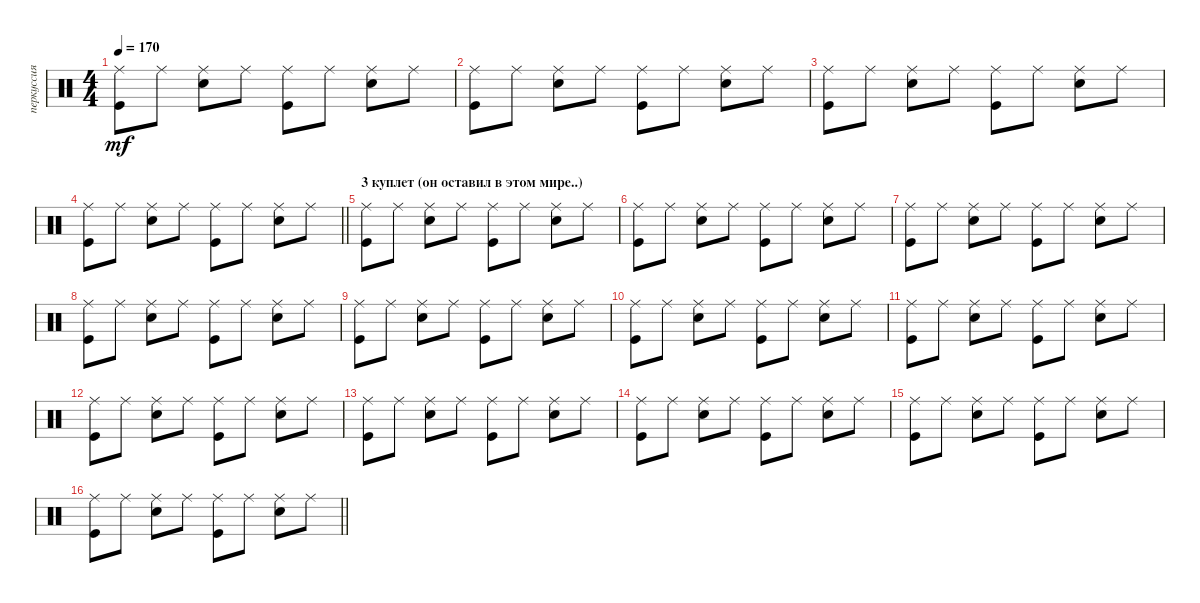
\track ("перкуссия" "перкуссия") {instrument percussion}
\staff {score}
\articulation defaults
\ts (4 4)
\tempo 170
\clef neutral
\ks c
("Ride (middle)" "Kick (hit)").8{dy mf} "Ride (middle)".8 ("Ride (middle)" "Snare (hit) 2").8 "Ride (middle)".8 ("Ride (middle)" "Kick (hit)").8 "Ride (middle)".8 ("Ride (middle)" "Snare (hit) 2").8 "Ride (middle)".8 |
("Ride (middle)" "Kick (hit)").8 "Ride (middle)".8 ("Ride (middle)" "Snare (hit) 2").8 "Ride (middle)".8 ("Ride (middle)" "Kick (hit)").8 "Ride (middle)".8 ("Ride (middle)" "Snare (hit) 2").8 "Ride (middle)".8 |
("Ride (middle)" "Kick (hit)").8 "Ride (middle)".8 ("Ride (middle)" "Snare (hit) 2").8 "Ride (middle)".8 ("Ride (middle)" "Kick (hit)").8 "Ride (middle)".8 ("Ride (middle)" "Snare (hit) 2").8 "Ride (middle)".8 |
\barLineRight lightlight
("Ride (middle)" "Kick (hit)").8 "Ride (middle)".8 ("Ride (middle)" "Snare (hit) 2").8 "Ride (middle)".8 ("Ride (middle)" "Kick (hit)").8 "Ride (middle)".8 ("Ride (middle)" "Snare (hit) 2").8 "Ride (middle)".8 |
\section ("" "3 куплет (он оставил в этом мире..)")
("Ride (middle)" "Kick (hit)").8 "Ride (middle)".8 ("Ride (middle)" "Snare (hit) 2").8 "Ride (middle)".8 ("Ride (middle)" "Kick (hit)").8 "Ride (middle)".8 ("Ride (middle)" "Snare (hit) 2").8 "Ride (middle)".8 |
("Ride (middle)" "Kick (hit)").8 "Ride (middle)".8 ("Ride (middle)" "Snare (hit) 2").8 "Ride (middle)".8 ("Ride (middle)" "Kick (hit)").8 "Ride (middle)".8 ("Ride (middle)" "Snare (hit) 2").8 "Ride (middle)".8 |
("Ride (middle)" "Kick (hit)").8 "Ride (middle)".8 ("Ride (middle)" "Snare (hit) 2").8 "Ride (middle)".8 ("Ride (middle)" "Kick (hit)").8 "Ride (middle)".8 ("Ride (middle)" "Snare (hit) 2").8 "Ride (middle)".8 |
("Ride (middle)" "Kick (hit)").8 "Ride (middle)".8 ("Ride (middle)" "Snare (hit) 2").8 "Ride (middle)".8 ("Ride (middle)" "Kick (hit)").8 "Ride (middle)".8 ("Ride (middle)" "Snare (hit) 2").8 "Ride (middle)".8 |
("Ride (middle)" "Kick (hit)").8 "Ride (middle)".8 ("Ride (middle)" "Snare (hit) 2").8 "Ride (middle)".8 ("Ride (middle)" "Kick (hit)").8 "Ride (middle)".8 ("Ride (middle)" "Snare (hit) 2").8 "Ride (middle)".8 |
("Ride (middle)" "Kick (hit)").8 "Ride (middle)".8 ("Ride (middle)" "Snare (hit) 2").8 "Ride (middle)".8 ("Ride (middle)" "Kick (hit)").8 "Ride (middle)".8 ("Ride (middle)" "Snare (hit) 2").8 "Ride (middle)".8 |
("Ride (middle)" "Kick (hit)").8 "Ride (middle)".8 ("Ride (middle)" "Snare (hit) 2").8 "Ride (middle)".8 ("Ride (middle)" "Kick (hit)").8 "Ride (middle)".8 ("Ride (middle)" "Snare (hit) 2").8 "Ride (middle)".8 |
("Ride (middle)" "Kick (hit)").8 "Ride (middle)".8 ("Ride (middle)" "Snare (hit) 2").8 "Ride (middle)".8 ("Ride (middle)" "Kick (hit)").8 "Ride (middle)".8 ("Ride (middle)" "Snare (hit) 2").8 "Ride (middle)".8 |
("Ride (middle)" "Kick (hit)").8 "Ride (middle)".8 ("Ride (middle)" "Snare (hit) 2").8 "Ride (middle)".8 ("Ride (middle)" "Kick (hit)").8 "Ride (middle)".8 ("Ride (middle)" "Snare (hit) 2").8 "Ride (middle)".8 |
("Ride (middle)" "Kick (hit)").8 "Ride (middle)".8 ("Ride (middle)" "Snare (hit) 2").8 "Ride (middle)".8 ("Ride (middle)" "Kick (hit)").8 "Ride (middle)".8 ("Ride (middle)" "Snare (hit) 2").8 "Ride (middle)".8 |
("Ride (middle)" "Kick (hit)").8 "Ride (middle)".8 ("Ride (middle)" "Snare (hit) 2").8 "Ride (middle)".8 ("Ride (middle)" "Kick (hit)").8 "Ride (middle)".8 ("Ride (middle)" "Snare (hit) 2").8 "Ride (middle)".8 |
\barLineRight lightlight
("Ride (middle)" "Kick (hit)").8 "Ride (middle)".8 ("Ride (middle)" "Snare (hit) 2").8 "Ride (middle)".8 ("Ride (middle)" "Kick (hit)").8 "Ride (middle)".8 ("Ride (middle)" "Snare (hit) 2").8 "Ride (middle)".8
